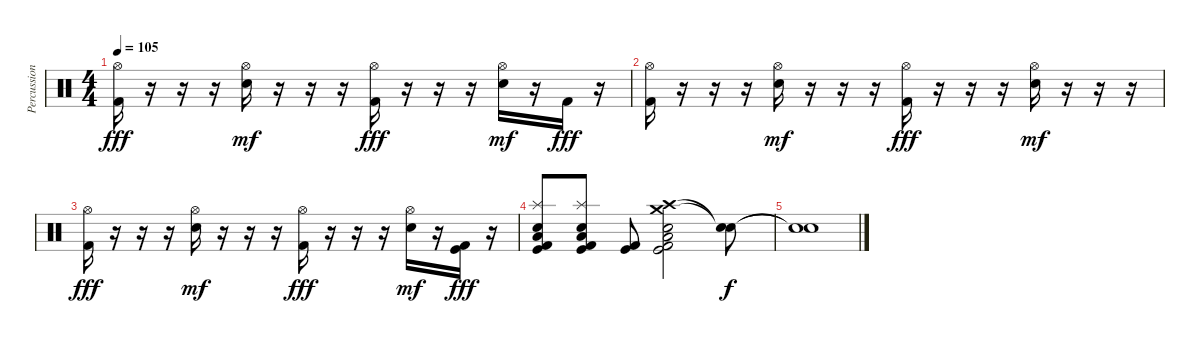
\track ("Percussions" "Percussion") {instrument percussion}
\staff {score}
\articulation defaults
\ts (4 4)
\tempo 105
\clef neutral
\ks c
("Hi-Hat (open)" "Kick (hit) 2").16{dy fff} r.16 r.16 r.16 ("Hi-Hat (open)" "Electric Snare (hit)").16{dy mf} r.16 r.16 r.16 ("Hi-Hat (open)" "Kick (hit) 2").16{dy fff} r.16 r.16 r.16 ("Hi-Hat (open)" "Electric Snare (hit)").16{dy mf} r.16 "Kick (hit) 2".16{dy fff} r.16 |
("Hi-Hat (open)" "Kick (hit) 2").16 r.16 r.16 r.16 ("Hi-Hat (open)" "Electric Snare (hit)").16{dy mf} r.16 r.16 r.16 ("Hi-Hat (open)" "Kick (hit) 2").16{dy fff} r.16 r.16 r.16 ("Hi-Hat (open)" "Electric Snare (hit)").16{dy mf} r.16 r.16 r.16 |
("Hi-Hat (open)" "Kick (hit) 2").16{dy fff} r.16 r.16 r.16 ("Hi-Hat (open)" "Electric Snare (hit)").16{dy mf} r.16 r.16 r.16 ("Hi-Hat (open)" "Kick (hit) 2").16{dy fff} r.16 r.16 r.16 ("Hi-Hat (open)" "Electric Snare (hit)").16{dy mf} r.16 ("Kick (hit)" "Kick (hit) 2").16{dy fff} r.16 |
("Splash (hit)" "Low Floor Tom (hit)" "Electric Snare (hit)" "Kick (hit)" "Kick (hit) 2").8 ("Splash (hit)" "Low Floor Tom (hit)" "Electric Snare (hit)" "Kick (hit)" "Kick (hit) 2").8 ("Kick (hit)" "Kick (hit) 2").8 ("Crash high (hit)" "Crash medium (hit)" "Low Floor Tom (hit)" "Electric Snare (hit)" "Kick (hit)" "Kick (hit) 2").2 ("Snare (hit)"{t} "Snare (hit)"{t}).8{dy f} |
("Snare (hit)"{t} "Snare (hit)"{t}).1
